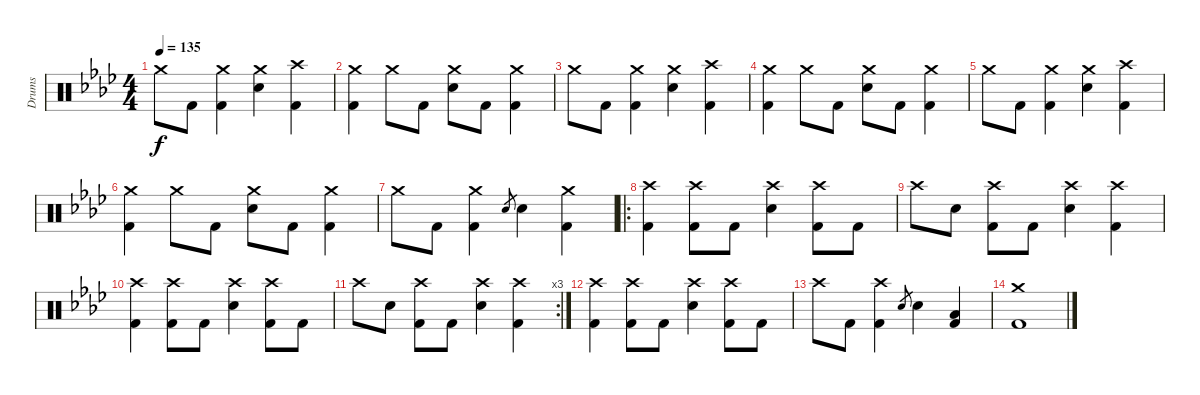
\track ("Drums" "Drums") {instrument percussion}
\staff {score}
\articulation defaults
\ts (4 4)
\tempo 135
\clef neutral
\ks ab "Crash medium (hit)".8{dy f} "Kick (hit) 2".8
("Crash medium (hit)" "Kick (hit) 2").4 ("Crash medium (hit)" "Electric Snare (hit)").4 ("Crash high (hit)" "Kick (hit) 2").4 |
("Crash medium (hit)" "Kick (hit) 2").4 "Crash medium (hit)".8 "Kick (hit) 2".8 ("Crash medium (hit)" "Electric Snare (hit)").8 "Kick (hit) 2".8 ("Crash medium (hit)" "Kick (hit) 2").4 |
"Crash medium (hit)".8 "Kick (hit) 2".8 ("Crash medium (hit)" "Kick (hit) 2").4 ("Crash medium (hit)" "Electric Snare (hit)").4 ("Crash high (hit)" "Kick (hit) 2").4 |
("Crash medium (hit)" "Kick (hit) 2").4 "Crash medium (hit)".8 "Kick (hit) 2".8 ("Crash medium (hit)" "Electric Snare (hit)").8 "Kick (hit) 2".8 ("Crash medium (hit)" "Kick (hit) 2").4 |
"Crash medium (hit)".8 "Kick (hit) 2".8 ("Crash medium (hit)" "Kick (hit) 2").4 ("Crash medium (hit)" "Electric Snare (hit)").4 ("Crash high (hit)" "Kick (hit) 2").4 |
("Crash medium (hit)" "Kick (hit) 2").4 "Crash medium (hit)".8 "Kick (hit) 2".8 ("Crash medium (hit)" "Electric Snare (hit)").8 "Kick (hit) 2".8 ("Crash medium (hit)" "Kick (hit) 2").4 |
"Crash medium (hit)".8 "Kick (hit) 2".8 ("Crash medium (hit)" "Kick (hit) 2").4 "Electric Snare (hit)".8{gr} "Electric Snare (hit)".4 ("Crash medium (hit)" "Kick (hit) 2").4 |
\ro
("Crash high (hit)" "Kick (hit) 2").4 ("Crash high (hit)" "Kick (hit) 2").8 "Kick (hit) 2".8 ("Crash high (hit)" "Electric Snare (hit)").4 ("Crash high (hit)" "Kick (hit) 2").8 "Kick (hit) 2".8 |
"Crash high (hit)".8 "Electric Snare (hit)".8 ("Crash high (hit)" "Kick (hit) 2").8 "Kick (hit) 2".8 ("Crash high (hit)" "Electric Snare (hit)").4 ("Crash high (hit)" "Kick (hit) 2").4 |
("Crash high (hit)" "Kick (hit) 2").4 ("Crash high (hit)" "Kick (hit) 2").8 "Kick (hit) 2".8 ("Crash high (hit)" "Electric Snare (hit)").4 ("Crash high (hit)" "Kick (hit) 2").8 "Kick (hit) 2".8 |
\rc 3 "Crash high (hit)".8 "Electric Snare (hit)".8
("Crash high (hit)" "Kick (hit) 2").8 "Kick (hit) 2".8 ("Crash high (hit)" "Electric Snare (hit)").4 ("Crash high (hit)" "Kick (hit) 2").4 |
("Crash high (hit)" "Kick (hit) 2").4 ("Crash high (hit)" "Kick (hit) 2").8 "Kick (hit) 2".8 ("Crash high (hit)" "Electric Snare (hit)").4 ("Crash high (hit)" "Kick (hit) 2").8 "Kick (hit) 2".8 |
"Crash high (hit)".8 "Kick (hit) 2".8 ("Crash high (hit)" "Kick (hit) 2").4 "Electric Snare (hit)".8{gr} "Electric Snare (hit)".4 ("Low Floor Tom (hit)" "Kick (hit) 2").4 |
("Crash medium (hit)" "Kick (hit) 2").1
